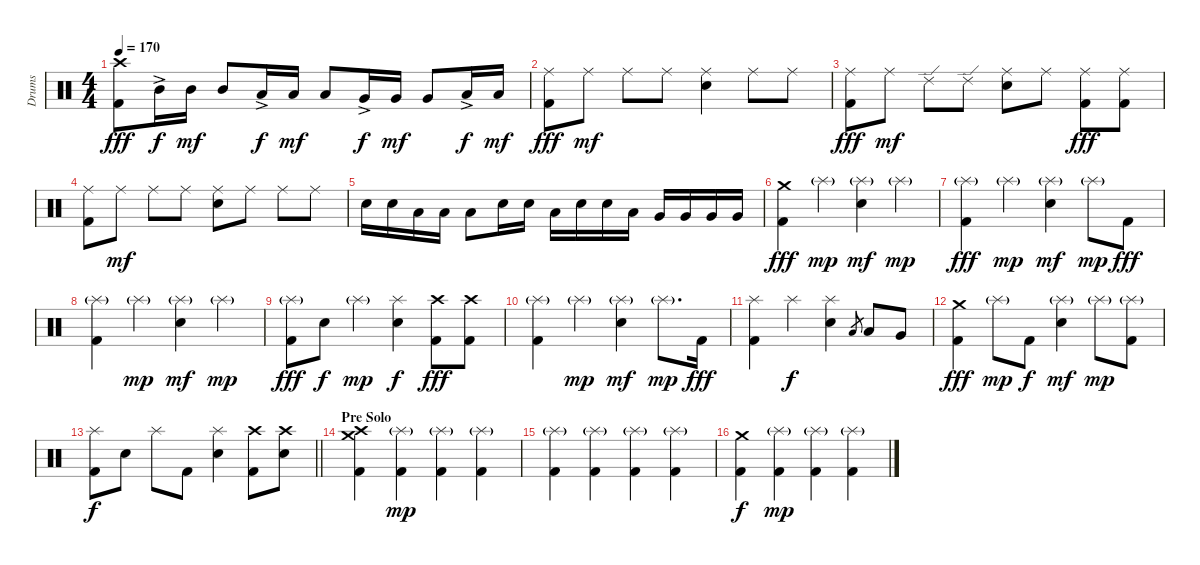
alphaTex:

\track ("Drums" "Drums") {instrument percussion}
\staff {score}
\articulation defaults
\ts (4 4)
\tempo 170
\clef neutral
\ks c
("Crash high (hit)" "Kick (hit) 2").8{dy fff} "Mid Tom (hit)"{ac}.16{dy f} "Mid Tom (hit)".16{dy mf} "Mid Tom (hit)".8 "Low Tom (hit)"{ac}.16{dy f} "Low Tom (hit)".16{dy mf} "Low Tom (hit)".8 "Very Low Tom (hit)"{ac}.16{dy f} "Very Low Tom (hit)".16{dy mf} "Very Low Tom (hit)".8 "Low Floor Tom (hit)"{ac}.16{dy f} "Low Floor Tom (hit)".16{dy mf} |
("Ride (middle)" "Kick (hit) 2").8{dy fff} "Ride (middle)".8{dy mf} "Ride (middle)".8 "Ride (middle)".8 ("Ride (middle)" "Snare (hit) 2").4 "Ride (middle)".8 "Ride (middle)".8 |
("Ride (middle)" "Kick (hit) 2").8{dy fff} "Ride (middle)".8{dy mf} "Ride (edge) 2".8 "Ride (edge) 2".8 ("Ride (middle)" "Snare (hit) 2").8 "Ride (middle)".8 ("Ride (middle)" "Kick (hit) 2").8{dy fff} ("Ride (middle)" "Kick (hit) 2").8 |
("Ride (middle)" "Kick (hit) 2").8 "Ride (middle)".8{dy mf} "Ride (middle)".8 "Ride (middle)".8 ("Ride (middle)" "Snare (hit) 2").8 "Ride (middle)".8 "Ride (middle)".8 "Ride (middle)".8 |
"Snare (hit) 2".16 "Snare (hit) 2".16 "Low Tom (hit)".16 "Low Tom (hit)".16 "Low Tom (hit)".8 "Snare (hit) 2".16 "Snare (hit) 2".16 "Low Tom (hit)".16 "Snare (hit) 2".16 "Snare (hit) 2".16 "Low Tom (hit)".16 "Very Low Tom (hit)".16 "Very Low Tom (hit)".16 "Very Low Tom (hit)".16 "Very Low Tom (hit)".16 |
("Crash medium (hit)" "Kick (hit) 2").4{dy fff} "Splash (hit)"{g}.4{dy mp} ("Splash (hit)"{g} "Snare (hit) 2").4{dy mf} "Splash (hit)"{g}.4{dy mp} |
("Splash (hit)"{g} "Kick (hit) 2").4{dy fff} "Splash (hit)"{g}.4{dy mp} ("Splash (hit)"{g} "Snare (hit) 2").4{dy mf} "Splash (hit)"{g}.8{dy mp} "Kick (hit) 2".8{dy fff} |
("Splash (hit)"{g} "Kick (hit) 2").4 "Splash (hit)"{g}.4{dy mp} ("Splash (hit)"{g} "Snare (hit) 2").4{dy mf} "Splash (hit)"{g}.4{dy mp} |
("Splash (hit)"{g} "Kick (hit) 2").8{dy fff} "Snare (hit) 2".8{dy f} "Splash (hit)"{g}.4{dy mp} ("Splash (hit)" "Snare (hit) 2").4{dy f} ("Crash high (hit)" "Kick (hit) 2").8{dy fff} ("Crash high (hit)" "Kick (hit) 2").8 |
("Splash (hit)"{g} "Kick (hit) 2").4 "Splash (hit)"{g}.4{dy mp} ("Splash (hit)"{g} "Snare (hit) 2").4{dy mf} "Splash (hit)"{g}.8{d dy mp} "Kick (hit) 2".16{dy fff} |
("Splash (hit)" "Kick (hit) 2").4 "Splash (hit)".4{dy f} ("Splash (hit)" "Snare (hit) 2").4 "Low Tom (hit)".8{gr} "Low Tom (hit)".8 "Very Low Tom (hit)".8 |
("Crash medium (hit)" "Kick (hit) 2").4{dy fff} "Splash (hit)"{g}.8{dy mp} "Kick (hit) 2".8{dy f} ("Splash (hit)"{g} "Snare (hit) 2").4{dy mf} "Splash (hit)"{g}.8{dy mp} ("Splash (hit)"{g} "Kick (hit) 2").8 |
\barLineRight lightlight
("Splash (hit)" "Kick (hit) 2").8{dy f} "Snare (hit) 2".8 "Splash (hit)".8 "Kick (hit) 2".8 ("Splash (hit)" "Snare (hit) 2").4 ("Crash high (hit)" "Kick (hit) 2").8 ("Crash high (hit)" "Snare (hit) 2").8 |
\section ("" "Pre Solo")
("Crash medium (hit)" "Crash high (hit)" "Kick (hit) 2").4 ("Splash (hit)"{g} "Kick (hit) 2").4{dy mp} ("Splash (hit)"{g} "Kick (hit) 2").4 ("Splash (hit)"{g} "Kick (hit) 2").4 |
("Splash (hit)"{g} "Kick (hit) 2").4 ("Splash (hit)"{g} "Kick (hit) 2").4 ("Splash (hit)"{g} "Kick (hit) 2").4 ("Splash (hit)"{g} "Kick (hit) 2").4 |
("Crash medium (hit)" "Kick (hit) 2").4{dy f} ("Splash (hit)"{g} "Kick (hit) 2").4{dy mp} ("Splash (hit)"{g} "Kick (hit) 2").4 ("Splash (hit)"{g} "Kick (hit) 2").4
